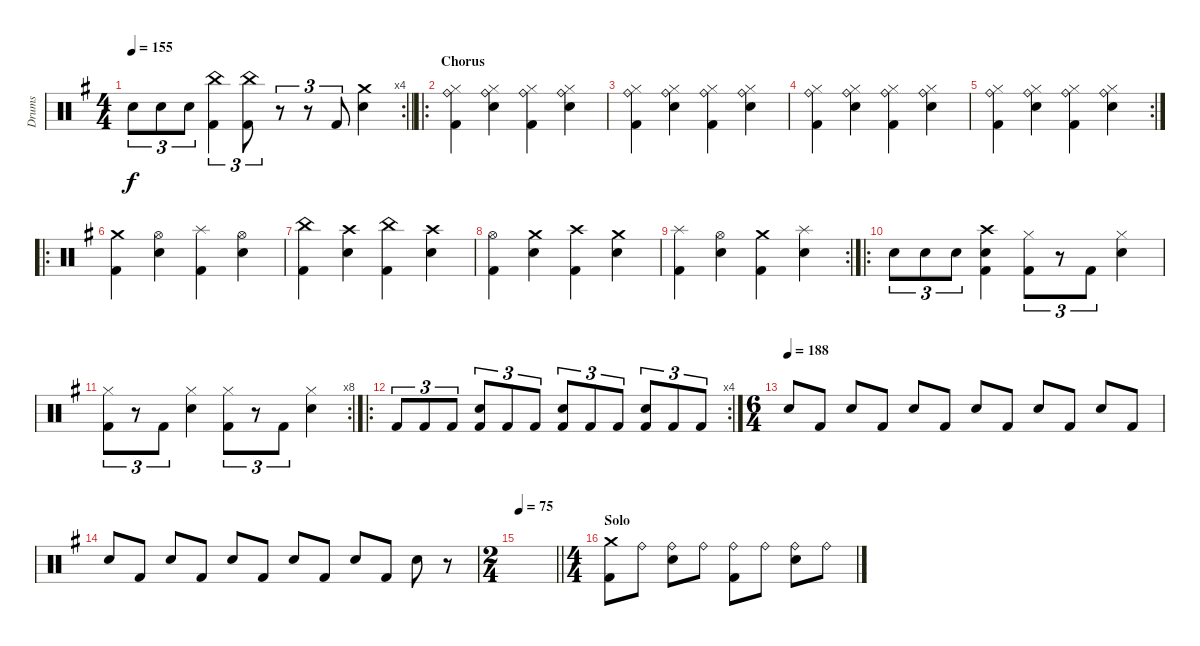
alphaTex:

\track ("Drums" "Drums") {instrument percussion}
\staff {score}
\articulation defaults
\rc 4
\ts (4 4)
\tempo 155
\clef neutral
\barLineRight lightlight
\ks eminor "Electric Snare (hit)".8{tu (3 2) dy f} "Electric Snare (hit)".8{tu (3 2)} "Electric Snare (hit)".8{tu (3 2)}
("China (hit)" "Kick (hit) 2").4{tu (3 2)} ("China (hit)" "Kick (hit) 2").8{tu (3 2)} r.8{tu (3 2)} r.8{tu (3 2)} "Kick (hit) 2".8{tu (3 2)} ("Crash medium (hit)" "Electric Snare (hit)").4 |
\ro
\section ("" "Chorus")
("Ride (bell)" "Hi-Hat (closed)" "Kick (hit) 2").4 ("Ride (bell)" "Hi-Hat (closed)" "Snare (hit) 2").4 ("Ride (bell)" "Hi-Hat (closed)" "Kick (hit) 2").4 ("Ride (bell)" "Hi-Hat (closed)" "Snare (hit) 2").4 |
("Ride (bell)" "Hi-Hat (closed)" "Kick (hit) 2").4 ("Ride (bell)" "Hi-Hat (closed)" "Snare (hit) 2").4 ("Ride (bell)" "Hi-Hat (closed)" "Kick (hit) 2").4 ("Ride (bell)" "Hi-Hat (closed)" "Snare (hit) 2").4 |
("Ride (bell)" "Hi-Hat (closed)" "Kick (hit) 2").4 ("Ride (bell)" "Hi-Hat (closed)" "Snare (hit) 2").4 ("Ride (bell)" "Hi-Hat (closed)" "Kick (hit) 2").4 ("Ride (bell)" "Hi-Hat (closed)" "Snare (hit) 2").4 |
\rc 2
("Ride (bell)" "Hi-Hat (closed)" "Kick (hit) 2").4 ("Ride (bell)" "Hi-Hat (closed)" "Snare (hit) 2").4 ("Ride (bell)" "Hi-Hat (closed)" "Kick (hit) 2").4 ("Ride (bell)" "Hi-Hat (closed)" "Snare (hit) 2").4 |
\ro
("Crash medium (hit)" "Kick (hit) 2").4 ("Hi-Hat (open)" "Snare (hit) 2").4 ("Splash (hit)" "Kick (hit) 2").4 ("Hi-Hat (open)" "Snare (hit) 2").4 |
("China (hit)" "Kick (hit) 2").4 ("Crash high (hit)" "Snare (hit) 2").4 ("China (hit)" "Kick (hit) 2").4 ("Crash high (hit)" "Snare (hit) 2").4 |
("Hi-Hat (open)" "Kick (hit) 2").4 ("Crash medium (hit)" "Snare (hit) 2").4 ("Crash high (hit)" "Kick (hit) 2").4 ("Crash medium (hit)" "Snare (hit) 2").4 |
\rc 2
("Splash (hit)" "Kick (hit) 2").4 ("Hi-Hat (open)" "Snare (hit) 2").4 ("Crash medium (hit)" "Kick (hit) 2").4 ("Splash (hit)" "Snare (hit) 2").4 |
\ro "Electric Snare (hit)".8{tu (3 2)} "Electric Snare (hit)".8{tu (3 2)} "Electric Snare (hit)".8{tu (3 2)}
("Crash high (hit)" "Snare (hit) 2" "Kick (hit) 2").4 ("Hi-Hat (closed)" "Kick (hit) 2").8{tu (3 2)} r.8{tu (3 2)} "Kick (hit) 2".8{tu (3 2)} ("Hi-Hat (closed)" "Snare (hit) 2").4 |
\rc 8
("Hi-Hat (closed)" "Kick (hit) 2").8{tu (3 2)} r.8{tu (3 2)} "Kick (hit) 2".8{tu (3 2)} ("Hi-Hat (closed)" "Snare (hit) 2").4 ("Hi-Hat (closed)" "Kick (hit) 2").8{tu (3 2)} r.8{tu (3 2)} "Kick (hit) 2".8{tu (3 2)} ("Hi-Hat (closed)" "Snare (hit) 2").4 |
\ro
\rc 4 "Kick (hit) 2".8{tu (3 2)} "Kick (hit) 2".8{tu (3 2)} "Kick (hit) 2".8{tu (3 2)}
("Electric Snare (hit)" "Kick (hit) 2").8{tu (3 2)} "Kick (hit) 2".8{tu (3 2)} "Kick (hit) 2".8{tu (3 2)} ("Electric Snare (hit)" "Kick (hit) 2").8{tu (3 2)} "Kick (hit) 2".8{tu (3 2)} "Kick (hit) 2".8{tu (3 2)} ("Electric Snare (hit)" "Kick (hit) 2").8{tu (3 2)} "Kick (hit) 2".8{tu (3 2)} "Kick (hit) 2".8{tu (3 2)} |
\ts (6 4)
\tempo (188)
"Snare (hit) 2".8 "Kick (hit) 2".8 "Snare (hit) 2".8 "Kick (hit) 2".8 "Snare (hit) 2".8 "Kick (hit) 2".8 "Snare (hit) 2".8 "Kick (hit) 2".8 "Snare (hit) 2".8 "Kick (hit) 2".8 "Snare (hit) 2".8 "Kick (hit) 2".8 |
"Snare (hit) 2".8 "Kick (hit) 2".8 "Snare (hit) 2".8 "Kick (hit) 2".8 "Snare (hit) 2".8 "Kick (hit) 2".8 "Snare (hit) 2".8 "Kick (hit) 2".8 "Snare (hit) 2".8 "Kick (hit) 2".8 "Snare (hit) 2".8 r.8 |
\ts (2 4)
\tempo 75
\barLineRight lightlight
|
\ts (4 4)
\section ("" "Solo")
("Crash medium (hit)" "Kick (hit) 2").8 "Ride (bell)".8 ("Ride (bell)" "Snare (hit) 2").8 "Ride (bell)".8 ("Ride (bell)" "Kick (hit) 2").8 "Ride (bell)".8 ("Ride (bell)" "Snare (hit) 2").8 "Ride (bell)".8
